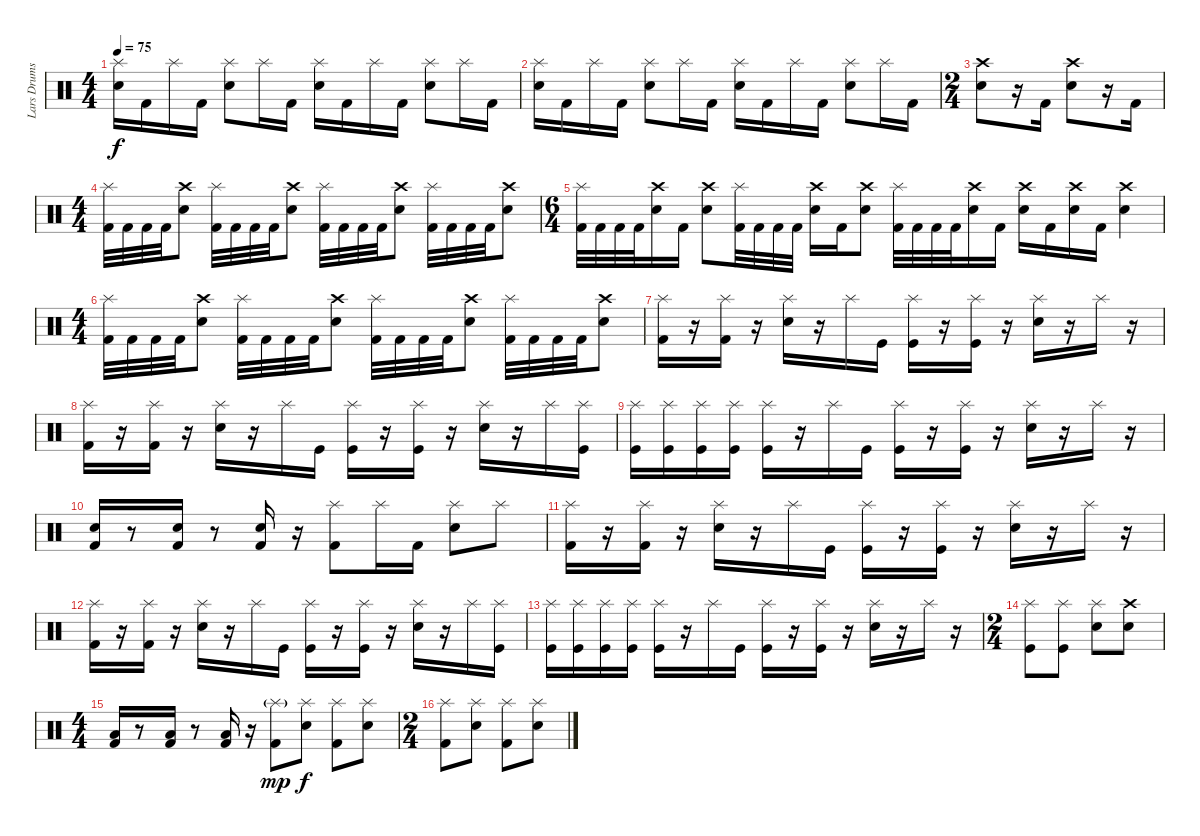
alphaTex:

\track ("Lars Drums" "Lars Drums") {instrument percussion}
\staff {score}
\articulation defaults
\ts (4 4)
\tempo 75
\clef neutral
\ks c
("Splash (hit)" "Snare (hit) 2").16{dy f} "Kick (hit) 2".16 "Splash (hit)".16 "Kick (hit) 2".16 ("Splash (hit)" "Snare (hit) 2").8 "Splash (hit)".16 "Kick (hit) 2".16 ("Splash (hit)" "Snare (hit) 2").16 "Kick (hit) 2".16 "Splash (hit)".16 "Kick (hit) 2".16 ("Splash (hit)" "Snare (hit) 2").8 "Splash (hit)".16 "Kick (hit) 2".16 |
("Splash (hit)" "Snare (hit) 2").16 "Kick (hit) 2".16 "Splash (hit)".16 "Kick (hit) 2".16 ("Splash (hit)" "Snare (hit) 2").8 "Splash (hit)".16 "Kick (hit) 2".16 ("Splash (hit)" "Snare (hit) 2").16 "Kick (hit) 2".16 "Splash (hit)".16 "Kick (hit) 2".16 ("Splash (hit)" "Snare (hit) 2").8 "Splash (hit)".16 "Kick (hit) 2".16 |
\ts (2 4)
("Crash high (hit)" "Snare (hit) 2").8 r.16 "Kick (hit) 2".16 ("Crash high (hit)" "Snare (hit) 2").8 r.16 "Kick (hit) 2".16 |
\ts (4 4)
("Splash (hit)" "Kick (hit) 2").32 "Kick (hit) 2".32 "Kick (hit) 2".32 "Kick (hit) 2".32 ("Crash high (hit)" "Snare (hit) 2").8 ("Splash (hit)" "Kick (hit) 2").32 "Kick (hit) 2".32 "Kick (hit) 2".32 "Kick (hit) 2".32 ("Crash high (hit)" "Snare (hit) 2").8 ("Splash (hit)" "Kick (hit) 2").32 "Kick (hit) 2".32 "Kick (hit) 2".32 "Kick (hit) 2".32 ("Crash high (hit)" "Snare (hit) 2").8 ("Splash (hit)" "Kick (hit) 2").32 "Kick (hit) 2".32 "Kick (hit) 2".32 "Kick (hit) 2".32 ("Crash high (hit)" "Snare (hit) 2").8 |
\ts (6 4)
("Splash (hit)" "Kick (hit) 2").32 "Kick (hit) 2".32 "Kick (hit) 2".32 "Kick (hit) 2".32 ("Crash high (hit)" "Snare (hit) 2").16 "Kick (hit) 2".16 ("Crash high (hit)" "Snare (hit) 2").8 ("Splash (hit)" "Kick (hit) 2").32 "Kick (hit) 2".32 "Kick (hit) 2".32 "Kick (hit) 2".32 ("Crash high (hit)" "Snare (hit) 2").16 "Kick (hit) 2".16 ("Crash high (hit)" "Snare (hit) 2").8 ("Splash (hit)" "Kick (hit) 2").32 "Kick (hit) 2".32 "Kick (hit) 2".32 "Kick (hit) 2".32 ("Crash high (hit)" "Snare (hit) 2").16 "Kick (hit) 2".16 ("Crash high (hit)" "Snare (hit) 2").16 "Kick (hit) 2".16 ("Crash high (hit)" "Snare (hit) 2").16 "Kick (hit) 2".16 ("Crash high (hit)" "Snare (hit) 2").4 |
\ts (4 4)
("Splash (hit)" "Kick (hit) 2").32 "Kick (hit) 2".32 "Kick (hit) 2".32 "Kick (hit) 2".32 ("Crash high (hit)" "Snare (hit) 2").8 ("Splash (hit)" "Kick (hit) 2").32 "Kick (hit) 2".32 "Kick (hit) 2".32 "Kick (hit) 2".32 ("Crash high (hit)" "Snare (hit) 2").8 ("Splash (hit)" "Kick (hit) 2").32 "Kick (hit) 2".32 "Kick (hit) 2".32 "Kick (hit) 2".32 ("Crash high (hit)" "Snare (hit) 2").8 ("Splash (hit)" "Kick (hit) 2").32 "Kick (hit) 2".32 "Kick (hit) 2".32 "Kick (hit) 2".32 ("Crash high (hit)" "Snare (hit) 2").8 |
("Splash (hit)" "Kick (hit) 2").16 r.16 ("Splash (hit)" "Kick (hit) 2").16 r.16 ("Splash (hit)" "Snare (hit) 2").16 r.16 "Splash (hit)".16 "Kick (hit)".16 ("Splash (hit)" "Kick (hit)").16 r.16 ("Splash (hit)" "Kick (hit)").16 r.16 ("Splash (hit)" "Snare (hit) 2").16 r.16 "Splash (hit)".16 r.16 |
("Splash (hit)" "Kick (hit) 2").16 r.16 ("Splash (hit)" "Kick (hit) 2").16 r.16 ("Splash (hit)" "Snare (hit) 2").16 r.16 "Splash (hit)".16 "Kick (hit)".16 ("Splash (hit)" "Kick (hit)").16 r.16 ("Splash (hit)" "Kick (hit)").16 r.16 ("Splash (hit)" "Snare (hit) 2").16 r.16 "Splash (hit)".16 ("Splash (hit)" "Kick (hit)").16 |
("Splash (hit)" "Kick (hit)").16 ("Splash (hit)" "Kick (hit)").16 ("Splash (hit)" "Kick (hit)").16 ("Splash (hit)" "Kick (hit)").16 ("Splash (hit)" "Kick (hit)").16 r.16 "Splash (hit)".16 "Kick (hit)".16 ("Splash (hit)" "Kick (hit)").16 r.16 ("Splash (hit)" "Kick (hit)").16 r.16 ("Splash (hit)" "Snare (hit) 2").16 r.16 "Splash (hit)".16 r.16 |
("Kick (hit) 2" "Snare (hit) 2").16 r.8 ("Kick (hit) 2" "Snare (hit) 2").16 r.8 ("Kick (hit) 2" "Snare (hit) 2").16 r.16 ("Splash (hit)" "Kick (hit) 2").8 "Splash (hit)".16 "Kick (hit) 2".16 ("Splash (hit)" "Snare (hit) 2").8 "Splash (hit)".8 |
("Splash (hit)" "Kick (hit) 2").16 r.16 ("Splash (hit)" "Kick (hit) 2").16 r.16 ("Splash (hit)" "Snare (hit) 2").16 r.16 "Splash (hit)".16 "Kick (hit)".16 ("Splash (hit)" "Kick (hit)").16 r.16 ("Splash (hit)" "Kick (hit)").16 r.16 ("Splash (hit)" "Snare (hit) 2").16 r.16 "Splash (hit)".16 r.16 |
("Splash (hit)" "Kick (hit) 2").16 r.16 ("Splash (hit)" "Kick (hit) 2").16 r.16 ("Splash (hit)" "Snare (hit) 2").16 r.16 "Splash (hit)".16 "Kick (hit)".16 ("Splash (hit)" "Kick (hit)").16 r.16 ("Splash (hit)" "Kick (hit)").16 r.16 ("Splash (hit)" "Snare (hit) 2").16 r.16 "Splash (hit)".16 ("Splash (hit)" "Kick (hit)").16 |
("Splash (hit)" "Kick (hit)").16 ("Splash (hit)" "Kick (hit)").16 ("Splash (hit)" "Kick (hit)").16 ("Splash (hit)" "Kick (hit)").16 ("Splash (hit)" "Kick (hit)").16 r.16 "Splash (hit)".16 "Kick (hit)".16 ("Splash (hit)" "Kick (hit)").16 r.16 ("Splash (hit)" "Kick (hit)").16 r.16 ("Splash (hit)" "Snare (hit) 2").16 r.16 "Splash (hit)".16 r.16 |
\ts (2 4)
("Splash (hit)" "Kick (hit)").8 ("Splash (hit)" "Kick (hit)").8 ("Splash (hit)" "Snare (hit) 2").8 ("Crash high (hit)" "Snare (hit) 2").8 |
\ts (4 4)
("Low Floor Tom (hit)" "Kick (hit) 2").16 r.8 ("Low Floor Tom (hit)" "Kick (hit) 2").16 r.8 ("Low Floor Tom (hit)" "Kick (hit) 2").16 r.16 ("Splash (hit)"{g} "Kick (hit) 2").8{dy mp} ("Splash (hit)" "Snare (hit) 2").8{dy f} ("Splash (hit)" "Kick (hit) 2").8 ("Splash (hit)" "Snare (hit) 2").8 |
\ts (2 4)
("Splash (hit)" "Kick (hit) 2").8 ("Splash (hit)" "Snare (hit) 2").8 ("Splash (hit)" "Kick (hit) 2").8 ("Splash (hit)" "Snare (hit) 2").8
